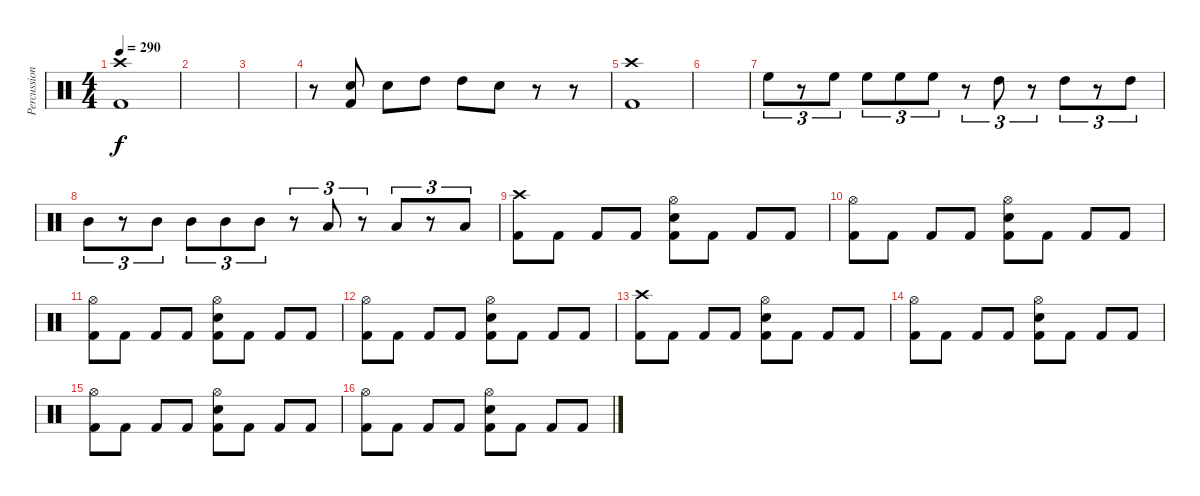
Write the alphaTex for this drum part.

\track ("Percussion" "Percussion") {instrument percussion}
\staff {score}
\articulation defaults
\ts (4 4)
\tempo 290
\clef neutral
\ks c
("Crash high (hit)" "Kick (hit) 2").1{dy f} |
|
|
r.8 ("Snare (hit) 2" "Kick (hit) 2").8 "Snare (hit) 2".8 "High Tom (hit)".8 "High Tom (hit)".8 "Snare (hit) 2".8 r.8 r.8 |
("Crash high (hit)" "Kick (hit) 2").1 |
|
"High Floor Tom (hit)".8{tu (3 2)} r.8{tu (3 2)} "High Floor Tom (hit)".8{tu (3 2)} "High Floor Tom (hit)".8{tu (3 2)} "High Floor Tom (hit)".8{tu (3 2)} "High Floor Tom (hit)".8{tu (3 2)} r.8{tu (3 2)} "High Tom (hit)".8{tu (3 2)} r.8{tu (3 2)} "High Tom (hit)".8{tu (3 2)} r.8{tu (3 2)} "High Tom (hit)".8{tu (3 2)} |
"Mid Tom (hit)".8{tu (3 2)} r.8{tu (3 2)} "Mid Tom (hit)".8{tu (3 2)} "Mid Tom (hit)".8{tu (3 2)} "Mid Tom (hit)".8{tu (3 2)} "Mid Tom (hit)".8{tu (3 2)} r.8{tu (3 2)} "Low Tom (hit)".8{tu (3 2)} r.8{tu (3 2)} "Low Tom (hit)".8{tu (3 2)} r.8{tu (3 2)} "Low Tom (hit)".8{tu (3 2)} |
("Crash high (hit)" "Kick (hit) 2").8 "Kick (hit) 2".8 "Kick (hit) 2".8 "Kick (hit) 2".8 ("Hi-Hat (open)" "Snare (hit) 2" "Kick (hit) 2").8 "Kick (hit) 2".8 "Kick (hit) 2".8 "Kick (hit) 2".8 |
("Hi-Hat (open)" "Kick (hit) 2").8 "Kick (hit) 2".8 "Kick (hit) 2".8 "Kick (hit) 2".8 ("Hi-Hat (open)" "Snare (hit) 2" "Kick (hit) 2").8 "Kick (hit) 2".8 "Kick (hit) 2".8 "Kick (hit) 2".8 |
("Hi-Hat (open)" "Kick (hit) 2").8 "Kick (hit) 2".8 "Kick (hit) 2".8 "Kick (hit) 2".8 ("Hi-Hat (open)" "Snare (hit) 2" "Kick (hit) 2").8 "Kick (hit) 2".8 "Kick (hit) 2".8 "Kick (hit) 2".8 |
("Hi-Hat (open)" "Kick (hit) 2").8 "Kick (hit) 2".8 "Kick (hit) 2".8 "Kick (hit) 2".8 ("Hi-Hat (open)" "Snare (hit) 2" "Kick (hit) 2").8 "Kick (hit) 2".8 "Kick (hit) 2".8 "Kick (hit) 2".8 |
("Crash high (hit)" "Kick (hit) 2").8 "Kick (hit) 2".8 "Kick (hit) 2".8 "Kick (hit) 2".8 ("Hi-Hat (open)" "Snare (hit) 2" "Kick (hit) 2").8 "Kick (hit) 2".8 "Kick (hit) 2".8 "Kick (hit) 2".8 |
("Hi-Hat (open)" "Kick (hit) 2").8 "Kick (hit) 2".8 "Kick (hit) 2".8 "Kick (hit) 2".8 ("Hi-Hat (open)" "Snare (hit) 2" "Kick (hit) 2").8 "Kick (hit) 2".8 "Kick (hit) 2".8 "Kick (hit) 2".8 |
("Hi-Hat (open)" "Kick (hit) 2").8 "Kick (hit) 2".8 "Kick (hit) 2".8 "Kick (hit) 2".8 ("Hi-Hat (open)" "Snare (hit) 2" "Kick (hit) 2").8 "Kick (hit) 2".8 "Kick (hit) 2".8 "Kick (hit) 2".8 |
("Hi-Hat (open)" "Kick (hit) 2").8 "Kick (hit) 2".8 "Kick (hit) 2".8 "Kick (hit) 2".8 ("Hi-Hat (open)" "Snare (hit) 2" "Kick (hit) 2").8 "Kick (hit) 2".8 "Kick (hit) 2".8 "Kick (hit) 2".8
